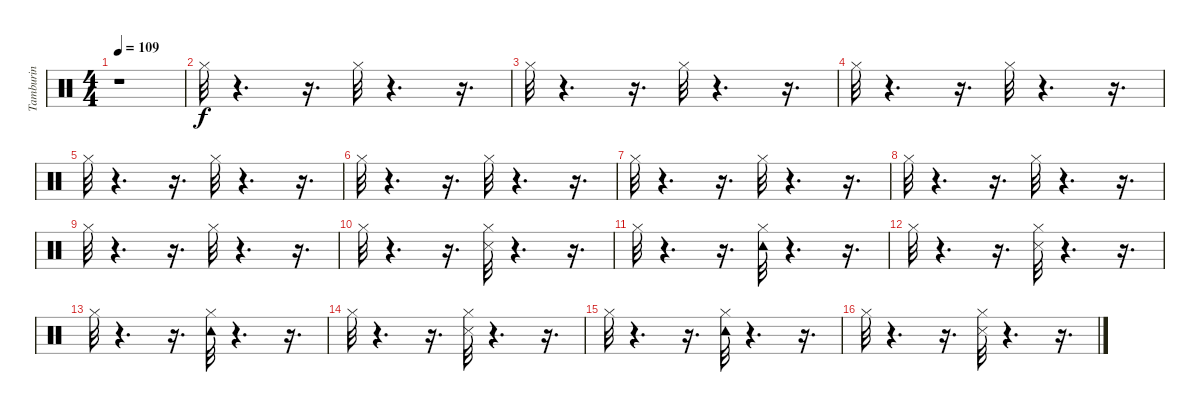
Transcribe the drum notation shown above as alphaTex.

\track ("Tamburin" "Tamburin") {instrument percussion}
\staff {score}
\articulation defaults
\ts (4 4)
\tempo 109
\clef neutral
\ks c
r.1{dy f} |
"Hi-Hat (closed)".32 r.4{d} r.16{d} "Hi-Hat (closed)".32 r.4{d} r.16{d} |
"Hi-Hat (closed)".32 r.4{d} r.16{d} "Hi-Hat (closed)".32 r.4{d} r.16{d} |
"Hi-Hat (closed)".32 r.4{d} r.16{d} "Hi-Hat (closed)".32 r.4{d} r.16{d} |
"Hi-Hat (closed)".32 r.4{d} r.16{d} "Hi-Hat (closed)".32 r.4{d} r.16{d} |
"Hi-Hat (closed)".32 r.4{d} r.16{d} "Hi-Hat (closed)".32 r.4{d} r.16{d} |
"Hi-Hat (closed)".32 r.4{d} r.16{d} "Hi-Hat (closed)".32 r.4{d} r.16{d} |
"Hi-Hat (closed)".32 r.4{d} r.16{d} "Hi-Hat (closed)".32 r.4{d} r.16{d} |
"Hi-Hat (closed)".32 r.4{d} r.16{d} "Hi-Hat (closed)".32 r.4{d} r.16{d} |
"Hi-Hat (closed)".32 r.4{d} r.16{d} ("Snare (side stick) 3" "Hi-Hat (closed)").32 r.4{d} r.16{d} |
"Hi-Hat (closed)".32 r.4{d} r.16{d} ("Hi-Hat (closed)" "Tambourine (hit)").32 r.4{d} r.16{d} |
"Hi-Hat (closed)".32 r.4{d} r.16{d} ("Snare (side stick) 3" "Hi-Hat (closed)").32 r.4{d} r.16{d} |
"Hi-Hat (closed)".32 r.4{d} r.16{d} ("Hi-Hat (closed)" "Tambourine (hit)").32 r.4{d} r.16{d} |
"Hi-Hat (closed)".32 r.4{d} r.16{d} ("Snare (side stick) 3" "Hi-Hat (closed)").32 r.4{d} r.16{d} |
"Hi-Hat (closed)".32 r.4{d} r.16{d} ("Hi-Hat (closed)" "Tambourine (hit)").32 r.4{d} r.16{d} |
"Hi-Hat (closed)".32 r.4{d} r.16{d} ("Snare (side stick) 3" "Hi-Hat (closed)").32 r.4{d} r.16{d}
